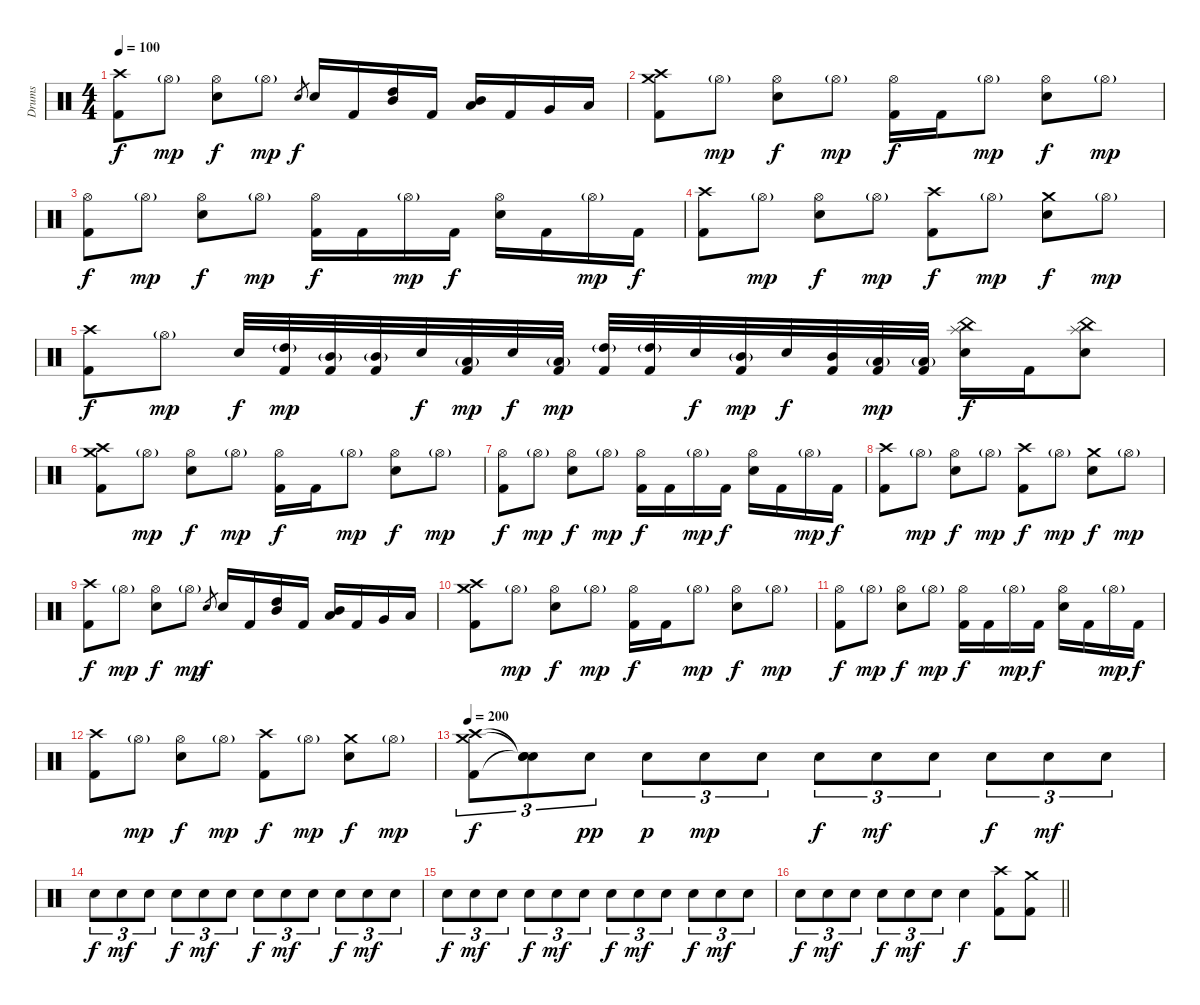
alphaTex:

\track ("Drums" "Drums") {instrument percussion}
\staff {score}
\articulation defaults
\ts (4 4)
\tempo 100
\clef neutral
\ks c
("Crash high (hit)" "Kick (hit) 2").8{dy f} "Hi-Hat (open)"{g}.8{dy mp} ("Hi-Hat (open)" "Electric Snare (hit)").8{dy f} "Hi-Hat (open)"{g}.8{dy mp} "Electric Snare (hit)".8{gr dy f} "Electric Snare (hit)".16 "Kick (hit) 2".16 ("High Tom (hit)" "Mid Tom (hit)").16 "Kick (hit) 2".16 ("Mid Tom (hit)" "Low Tom (hit)").16 "Kick (hit) 2".16 "Very Low Tom (hit)".16 "Low Floor Tom (hit)".16 |
("Crash high (hit)" "Crash medium (hit)" "Kick (hit) 2").8 "Hi-Hat (open)"{g}.8{dy mp} ("Hi-Hat (open)" "Electric Snare (hit)").8{dy f} "Hi-Hat (open)"{g}.8{dy mp} ("Hi-Hat (open)" "Kick (hit) 2").16{dy f} "Kick (hit) 2".16 "Hi-Hat (open)"{g}.8{dy mp} ("Hi-Hat (open)" "Electric Snare (hit)").8{dy f} "Hi-Hat (open)"{g}.8{dy mp} |
("Hi-Hat (open)" "Kick (hit) 2").8{dy f} "Hi-Hat (open)"{g}.8{dy mp} ("Hi-Hat (open)" "Electric Snare (hit)").8{dy f} "Hi-Hat (open)"{g}.8{dy mp} ("Hi-Hat (open)" "Kick (hit) 2").16{dy f} "Kick (hit) 2".16 "Hi-Hat (open)"{g}.16{dy mp} "Kick (hit) 2".16{dy f} ("Hi-Hat (open)" "Electric Snare (hit)").16 "Kick (hit) 2".16 "Hi-Hat (open)"{g}.16{dy mp} "Kick (hit) 2".16{dy f} |
("Crash high (hit)" "Kick (hit) 2").8 "Hi-Hat (open)"{g}.8{dy mp} ("Hi-Hat (open)" "Electric Snare (hit)").8{dy f} "Hi-Hat (open)"{g}.8{dy mp} ("Crash high (hit)" "Kick (hit) 2").8{dy f} "Hi-Hat (open)"{g}.8{dy mp} ("Crash medium (hit)" "Electric Snare (hit)").8{dy f} "Hi-Hat (open)"{g}.8{dy mp} |
("Crash high (hit)" "Kick (hit) 2").8{dy f} "Hi-Hat (open)"{g}.8{dy mp} "Electric Snare (hit)".32{dy f} ("High Tom (hit)"{g} "Kick (hit) 2").32{dy mp} ("Mid Tom (hit)"{g} "Kick (hit) 2").32 ("Mid Tom (hit)"{g} "Kick (hit) 2").32 "Electric Snare (hit)".32{dy f} ("Low Tom (hit)"{g} "Kick (hit) 2").32{dy mp} "Electric Snare (hit)".32{dy f} ("Low Tom (hit)"{g} "Kick (hit) 2").32{dy mp} ("High Tom (hit)"{g} "Kick (hit) 2").32 ("High Tom (hit)"{g} "Kick (hit) 2").32 "Electric Snare (hit)".32{dy f} ("Mid Tom (hit)"{g} "Kick (hit) 2").32{dy mp} "Electric Snare (hit)".32{dy f} ("Mid Tom (hit)" "Kick (hit) 2").32 ("Low Tom (hit)"{g} "Kick (hit) 2").32{dy mp} ("Low Tom (hit)"{g} "Kick (hit) 2").32 ("China (hit)" "Splash (hit)" "Electric Snare (hit)").16{dy f} "Kick (hit) 2".16 ("China (hit)" "Splash (hit)" "Electric Snare (hit)").8 |
("Crash high (hit)" "Crash medium (hit)" "Kick (hit) 2").8 "Hi-Hat (open)"{g}.8{dy mp} ("Hi-Hat (open)" "Electric Snare (hit)").8{dy f} "Hi-Hat (open)"{g}.8{dy mp} ("Hi-Hat (open)" "Kick (hit) 2").16{dy f} "Kick (hit) 2".16 "Hi-Hat (open)"{g}.8{dy mp} ("Hi-Hat (open)" "Electric Snare (hit)").8{dy f} "Hi-Hat (open)"{g}.8{dy mp} |
("Hi-Hat (open)" "Kick (hit) 2").8{dy f} "Hi-Hat (open)"{g}.8{dy mp} ("Hi-Hat (open)" "Electric Snare (hit)").8{dy f} "Hi-Hat (open)"{g}.8{dy mp} ("Hi-Hat (open)" "Kick (hit) 2").16{dy f} "Kick (hit) 2".16 "Hi-Hat (open)"{g}.16{dy mp} "Kick (hit) 2".16{dy f} ("Hi-Hat (open)" "Electric Snare (hit)").16 "Kick (hit) 2".16 "Hi-Hat (open)"{g}.16{dy mp} "Kick (hit) 2".16{dy f} |
("Crash high (hit)" "Kick (hit) 2").8 "Hi-Hat (open)"{g}.8{dy mp} ("Hi-Hat (open)" "Electric Snare (hit)").8{dy f} "Hi-Hat (open)"{g}.8{dy mp} ("Crash high (hit)" "Kick (hit) 2").8{dy f} "Hi-Hat (open)"{g}.8{dy mp} ("Crash medium (hit)" "Electric Snare (hit)").8{dy f} "Hi-Hat (open)"{g}.8{dy mp} |
("Crash high (hit)" "Kick (hit) 2").8{dy f} "Hi-Hat (open)"{g}.8{dy mp} ("Hi-Hat (open)" "Electric Snare (hit)").8{dy f} "Hi-Hat (open)"{g}.8{dy mp} "Electric Snare (hit)".8{gr dy f} "Electric Snare (hit)".16 "Kick (hit) 2".16 ("High Tom (hit)" "Mid Tom (hit)").16 "Kick (hit) 2".16 ("Mid Tom (hit)" "Low Tom (hit)").16 "Kick (hit) 2".16 "Very Low Tom (hit)".16 "Low Floor Tom (hit)".16 |
("Crash high (hit)" "Crash medium (hit)" "Kick (hit) 2").8 "Hi-Hat (open)"{g}.8{dy mp} ("Hi-Hat (open)" "Electric Snare (hit)").8{dy f} "Hi-Hat (open)"{g}.8{dy mp} ("Hi-Hat (open)" "Kick (hit) 2").16{dy f} "Kick (hit) 2".16 "Hi-Hat (open)"{g}.8{dy mp} ("Hi-Hat (open)" "Electric Snare (hit)").8{dy f} "Hi-Hat (open)"{g}.8{dy mp} |
("Hi-Hat (open)" "Kick (hit) 2").8{dy f} "Hi-Hat (open)"{g}.8{dy mp} ("Hi-Hat (open)" "Electric Snare (hit)").8{dy f} "Hi-Hat (open)"{g}.8{dy mp} ("Hi-Hat (open)" "Kick (hit) 2").16{dy f} "Kick (hit) 2".16 "Hi-Hat (open)"{g}.16{dy mp} "Kick (hit) 2".16{dy f} ("Hi-Hat (open)" "Electric Snare (hit)").16 "Kick (hit) 2".16 "Hi-Hat (open)"{g}.16{dy mp} "Kick (hit) 2".16{dy f} |
("Crash high (hit)" "Kick (hit) 2").8 "Hi-Hat (open)"{g}.8{dy mp} ("Hi-Hat (open)" "Electric Snare (hit)").8{dy f} "Hi-Hat (open)"{g}.8{dy mp} ("Crash high (hit)" "Kick (hit) 2").8{dy f} "Hi-Hat (open)"{g}.8{dy mp} ("Crash medium (hit)" "Electric Snare (hit)").8{dy f} "Hi-Hat (open)"{g}.8{dy mp} |
\tempo 200
("Crash high (hit)" "Crash medium (hit)" "Kick (hit) 2").8{tu (3 2) dy f} ("Snare (hit)"{t} "Snare (hit)"{t} "Snare (hit)"{t}).8{tu (3 2)} "Electric Snare (hit)".8{tu (3 2) dy pp} "Electric Snare (hit)".8{tu (3 2) dy p} "Electric Snare (hit)".8{tu (3 2) dy mp} "Electric Snare (hit)".8{tu (3 2)} "Electric Snare (hit)".8{tu (3 2) dy f} "Electric Snare (hit)".8{tu (3 2) dy mf} "Electric Snare (hit)".8{tu (3 2)} "Electric Snare (hit)".8{tu (3 2) dy f} "Electric Snare (hit)".8{tu (3 2) dy mf} "Electric Snare (hit)".8{tu (3 2)} |
"Electric Snare (hit)".8{tu (3 2) dy f} "Electric Snare (hit)".8{tu (3 2) dy mf} "Electric Snare (hit)".8{tu (3 2)} "Electric Snare (hit)".8{tu (3 2) dy f} "Electric Snare (hit)".8{tu (3 2) dy mf} "Electric Snare (hit)".8{tu (3 2)} "Electric Snare (hit)".8{tu (3 2) dy f} "Electric Snare (hit)".8{tu (3 2) dy mf} "Electric Snare (hit)".8{tu (3 2)} "Electric Snare (hit)".8{tu (3 2) dy f} "Electric Snare (hit)".8{tu (3 2) dy mf} "Electric Snare (hit)".8{tu (3 2)} |
"Electric Snare (hit)".8{tu (3 2) dy f} "Electric Snare (hit)".8{tu (3 2) dy mf} "Electric Snare (hit)".8{tu (3 2)} "Electric Snare (hit)".8{tu (3 2) dy f} "Electric Snare (hit)".8{tu (3 2) dy mf} "Electric Snare (hit)".8{tu (3 2)} "Electric Snare (hit)".8{tu (3 2) dy f} "Electric Snare (hit)".8{tu (3 2) dy mf} "Electric Snare (hit)".8{tu (3 2)} "Electric Snare (hit)".8{tu (3 2) dy f} "Electric Snare (hit)".8{tu (3 2) dy mf} "Electric Snare (hit)".8{tu (3 2)} |
\barLineRight lightlight "Electric Snare (hit)".8{tu (3 2) dy f} "Electric Snare (hit)".8{tu (3 2) dy mf} "Electric Snare (hit)".8{tu (3 2)} "Electric Snare (hit)".8{tu (3 2) dy f} "Electric Snare (hit)".8{tu (3 2) dy mf} "Electric Snare (hit)".8{tu (3 2)} "Electric Snare (hit)".4{dy f}
("Crash high (hit)" "Kick (hit) 2").8 ("Crash medium (hit)" "Kick (hit) 2").8
